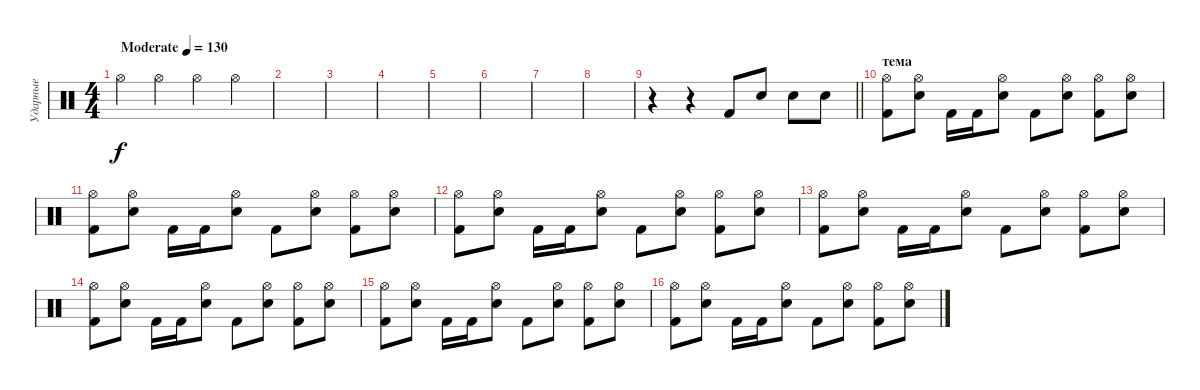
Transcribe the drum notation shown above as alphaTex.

\track ("Ударные" "Ударные") {instrument percussion}
\staff {score}
\articulation defaults
\ts (4 4)
\tempo (130 "Moderate")
\clef neutral
\ks c "Hi-Hat (open)".4{dy f} "Hi-Hat (open)".4 "Hi-Hat (open)".4 "Hi-Hat (open)".4
|
|
|
|
|
|
|
|
\barLineRight lightlight
r.4 r.4 "Kick (hit) 2".8 "Electric Snare (hit)".8 "Electric Snare (hit)".8 "Electric Snare (hit)".8 |
\section ("" "тема")
("Kick (hit) 2" "Hi-Hat (open)").8 ("Electric Snare (hit)" "Hi-Hat (open)").8 "Kick (hit) 2".16 "Kick (hit) 2".16 ("Electric Snare (hit)" "Hi-Hat (open)").8 "Kick (hit) 2".8 ("Electric Snare (hit)" "Hi-Hat (open)").8 ("Kick (hit) 2" "Hi-Hat (open)").8 ("Electric Snare (hit)" "Hi-Hat (open)").8 |
("Kick (hit) 2" "Hi-Hat (open)").8 ("Electric Snare (hit)" "Hi-Hat (open)").8 "Kick (hit) 2".16 "Kick (hit) 2".16 ("Electric Snare (hit)" "Hi-Hat (open)").8 "Kick (hit) 2".8 ("Electric Snare (hit)" "Hi-Hat (open)").8 ("Kick (hit) 2" "Hi-Hat (open)").8 ("Electric Snare (hit)" "Hi-Hat (open)").8 |
("Kick (hit) 2" "Hi-Hat (open)").8 ("Electric Snare (hit)" "Hi-Hat (open)").8 "Kick (hit) 2".16 "Kick (hit) 2".16 ("Electric Snare (hit)" "Hi-Hat (open)").8 "Kick (hit) 2".8 ("Electric Snare (hit)" "Hi-Hat (open)").8 ("Kick (hit) 2" "Hi-Hat (open)").8 ("Electric Snare (hit)" "Hi-Hat (open)").8 |
("Kick (hit) 2" "Hi-Hat (open)").8 ("Electric Snare (hit)" "Hi-Hat (open)").8 "Kick (hit) 2".16 "Kick (hit) 2".16 ("Electric Snare (hit)" "Hi-Hat (open)").8 "Kick (hit) 2".8 ("Electric Snare (hit)" "Hi-Hat (open)").8 ("Kick (hit) 2" "Hi-Hat (open)").8 ("Electric Snare (hit)" "Hi-Hat (open)").8 |
("Kick (hit) 2" "Hi-Hat (open)").8 ("Electric Snare (hit)" "Hi-Hat (open)").8 "Kick (hit) 2".16 "Kick (hit) 2".16 ("Electric Snare (hit)" "Hi-Hat (open)").8 "Kick (hit) 2".8 ("Electric Snare (hit)" "Hi-Hat (open)").8 ("Kick (hit) 2" "Hi-Hat (open)").8 ("Electric Snare (hit)" "Hi-Hat (open)").8 |
("Kick (hit) 2" "Hi-Hat (open)").8 ("Electric Snare (hit)" "Hi-Hat (open)").8 "Kick (hit) 2".16 "Kick (hit) 2".16 ("Electric Snare (hit)" "Hi-Hat (open)").8 "Kick (hit) 2".8 ("Electric Snare (hit)" "Hi-Hat (open)").8 ("Kick (hit) 2" "Hi-Hat (open)").8 ("Electric Snare (hit)" "Hi-Hat (open)").8 |
("Kick (hit) 2" "Hi-Hat (open)").8 ("Electric Snare (hit)" "Hi-Hat (open)").8 "Kick (hit) 2".16 "Kick (hit) 2".16 ("Electric Snare (hit)" "Hi-Hat (open)").8 "Kick (hit) 2".8 ("Electric Snare (hit)" "Hi-Hat (open)").8 ("Kick (hit) 2" "Hi-Hat (open)").8 ("Electric Snare (hit)" "Hi-Hat (open)").8
